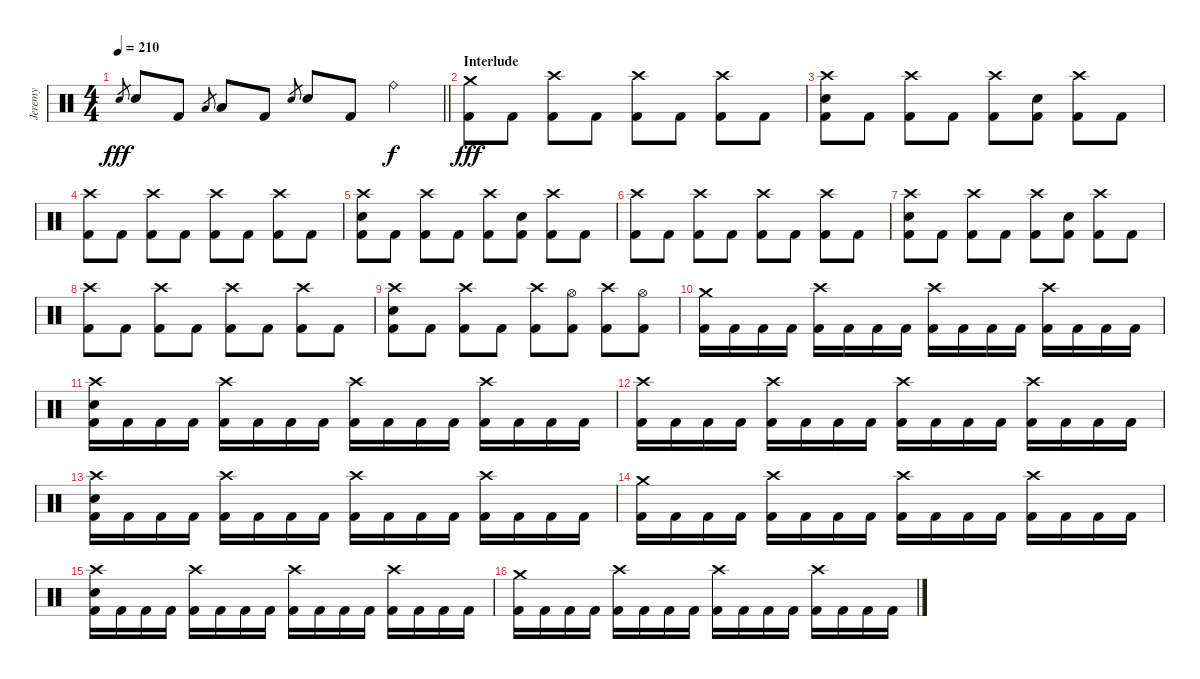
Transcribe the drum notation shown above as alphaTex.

\track ("Jeremy" "Jeremy") {instrument percussion}
\staff {score}
\articulation defaults
\ts (4 4)
\tempo 210
\clef neutral
\barLineRight lightlight
\ks c "Electric Snare (hit)".8{gr dy fff} "Electric Snare (hit)".8 "Kick (hit) 2".8 "Low Tom (hit)".8{gr} "Low Tom (hit)".8 "Kick (hit) 2".8 "Electric Snare (hit)".8{gr} "Electric Snare (hit)".8 "Kick (hit) 2".8 "Ride (bell)".4{dy f}
|
\section ("" "Interlude")
("Crash medium (hit)" "Kick (hit) 2").8{dy fff} "Kick (hit) 2".8 ("Crash high (hit)" "Kick (hit) 2").8 "Kick (hit) 2".8 ("Crash high (hit)" "Kick (hit) 2").8 "Kick (hit) 2".8 ("Crash high (hit)" "Kick (hit) 2").8 "Kick (hit) 2".8 |
("Crash high (hit)" "Electric Snare (hit)" "Kick (hit) 2").8 "Kick (hit) 2".8 ("Crash high (hit)" "Kick (hit) 2").8 "Kick (hit) 2".8 ("Crash high (hit)" "Kick (hit) 2").8 ("Electric Snare (hit)" "Kick (hit) 2").8 ("Crash high (hit)" "Kick (hit) 2").8 "Kick (hit) 2".8 |
("Crash high (hit)" "Kick (hit) 2").8 "Kick (hit) 2".8 ("Crash high (hit)" "Kick (hit) 2").8 "Kick (hit) 2".8 ("Crash high (hit)" "Kick (hit) 2").8 "Kick (hit) 2".8 ("Crash high (hit)" "Kick (hit) 2").8 "Kick (hit) 2".8 |
("Crash high (hit)" "Electric Snare (hit)" "Kick (hit) 2").8 "Kick (hit) 2".8 ("Crash high (hit)" "Kick (hit) 2").8 "Kick (hit) 2".8 ("Crash high (hit)" "Kick (hit) 2").8 ("Electric Snare (hit)" "Kick (hit) 2").8 ("Crash high (hit)" "Kick (hit) 2").8 "Kick (hit) 2".8 |
("Crash high (hit)" "Kick (hit) 2").8 "Kick (hit) 2".8 ("Crash high (hit)" "Kick (hit) 2").8 "Kick (hit) 2".8 ("Crash high (hit)" "Kick (hit) 2").8 "Kick (hit) 2".8 ("Crash high (hit)" "Kick (hit) 2").8 "Kick (hit) 2".8 |
("Crash high (hit)" "Electric Snare (hit)" "Kick (hit) 2").8 "Kick (hit) 2".8 ("Crash high (hit)" "Kick (hit) 2").8 "Kick (hit) 2".8 ("Crash high (hit)" "Kick (hit) 2").8 ("Electric Snare (hit)" "Kick (hit) 2").8 ("Crash high (hit)" "Kick (hit) 2").8 "Kick (hit) 2".8 |
("Crash high (hit)" "Kick (hit) 2").8 "Kick (hit) 2".8 ("Crash high (hit)" "Kick (hit) 2").8 "Kick (hit) 2".8 ("Crash high (hit)" "Kick (hit) 2").8 "Kick (hit) 2".8 ("Crash high (hit)" "Kick (hit) 2").8 "Kick (hit) 2".8 |
("Crash high (hit)" "Electric Snare (hit)" "Kick (hit) 2").8 "Kick (hit) 2".8 ("Crash high (hit)" "Kick (hit) 2").8 "Kick (hit) 2".8 ("Crash high (hit)" "Kick (hit) 2").8 ("Hi-Hat (open)" "Kick (hit) 2").8 ("Crash high (hit)" "Kick (hit) 2").8 ("Hi-Hat (open)" "Kick (hit) 2").8 |
("Crash medium (hit)" "Kick (hit) 2").16 "Kick (hit) 2".16 "Kick (hit) 2".16 "Kick (hit) 2".16 ("Crash high (hit)" "Kick (hit) 2").16 "Kick (hit) 2".16 "Kick (hit) 2".16 "Kick (hit) 2".16 ("Crash high (hit)" "Kick (hit) 2").16 "Kick (hit) 2".16 "Kick (hit) 2".16 "Kick (hit) 2".16 ("Crash high (hit)" "Kick (hit) 2").16 "Kick (hit) 2".16 "Kick (hit) 2".16 "Kick (hit) 2".16 |
("Crash high (hit)" "Electric Snare (hit)" "Kick (hit) 2").16 "Kick (hit) 2".16 "Kick (hit) 2".16 "Kick (hit) 2".16 ("Crash high (hit)" "Kick (hit) 2").16 "Kick (hit) 2".16 "Kick (hit) 2".16 "Kick (hit) 2".16 ("Crash high (hit)" "Kick (hit) 2").16 "Kick (hit) 2".16 "Kick (hit) 2".16 "Kick (hit) 2".16 ("Crash high (hit)" "Kick (hit) 2").16 "Kick (hit) 2".16 "Kick (hit) 2".16 "Kick (hit) 2".16 |
("Crash high (hit)" "Kick (hit) 2").16 "Kick (hit) 2".16 "Kick (hit) 2".16 "Kick (hit) 2".16 ("Crash high (hit)" "Kick (hit) 2").16 "Kick (hit) 2".16 "Kick (hit) 2".16 "Kick (hit) 2".16 ("Crash high (hit)" "Kick (hit) 2").16 "Kick (hit) 2".16 "Kick (hit) 2".16 "Kick (hit) 2".16 ("Crash high (hit)" "Kick (hit) 2").16 "Kick (hit) 2".16 "Kick (hit) 2".16 "Kick (hit) 2".16 |
("Crash high (hit)" "Electric Snare (hit)" "Kick (hit) 2").16 "Kick (hit) 2".16 "Kick (hit) 2".16 "Kick (hit) 2".16 ("Crash high (hit)" "Kick (hit) 2").16 "Kick (hit) 2".16 "Kick (hit) 2".16 "Kick (hit) 2".16 ("Crash high (hit)" "Kick (hit) 2").16 "Kick (hit) 2".16 "Kick (hit) 2".16 "Kick (hit) 2".16 ("Crash high (hit)" "Kick (hit) 2").16 "Kick (hit) 2".16 "Kick (hit) 2".16 "Kick (hit) 2".16 |
("Crash medium (hit)" "Kick (hit) 2").16 "Kick (hit) 2".16 "Kick (hit) 2".16 "Kick (hit) 2".16 ("Crash high (hit)" "Kick (hit) 2").16 "Kick (hit) 2".16 "Kick (hit) 2".16 "Kick (hit) 2".16 ("Crash high (hit)" "Kick (hit) 2").16 "Kick (hit) 2".16 "Kick (hit) 2".16 "Kick (hit) 2".16 ("Crash high (hit)" "Kick (hit) 2").16 "Kick (hit) 2".16 "Kick (hit) 2".16 "Kick (hit) 2".16 |
("Crash high (hit)" "Electric Snare (hit)" "Kick (hit) 2").16 "Kick (hit) 2".16 "Kick (hit) 2".16 "Kick (hit) 2".16 ("Crash high (hit)" "Kick (hit) 2").16 "Kick (hit) 2".16 "Kick (hit) 2".16 "Kick (hit) 2".16 ("Crash high (hit)" "Kick (hit) 2").16 "Kick (hit) 2".16 "Kick (hit) 2".16 "Kick (hit) 2".16 ("Crash high (hit)" "Kick (hit) 2").16 "Kick (hit) 2".16 "Kick (hit) 2".16 "Kick (hit) 2".16 |
("Crash medium (hit)" "Kick (hit) 2").16 "Kick (hit) 2".16 "Kick (hit) 2".16 "Kick (hit) 2".16 ("Crash high (hit)" "Kick (hit) 2").16 "Kick (hit) 2".16 "Kick (hit) 2".16 "Kick (hit) 2".16 ("Crash high (hit)" "Kick (hit) 2").16 "Kick (hit) 2".16 "Kick (hit) 2".16 "Kick (hit) 2".16 ("Crash high (hit)" "Kick (hit) 2").16 "Kick (hit) 2".16 "Kick (hit) 2".16 "Kick (hit) 2".16
